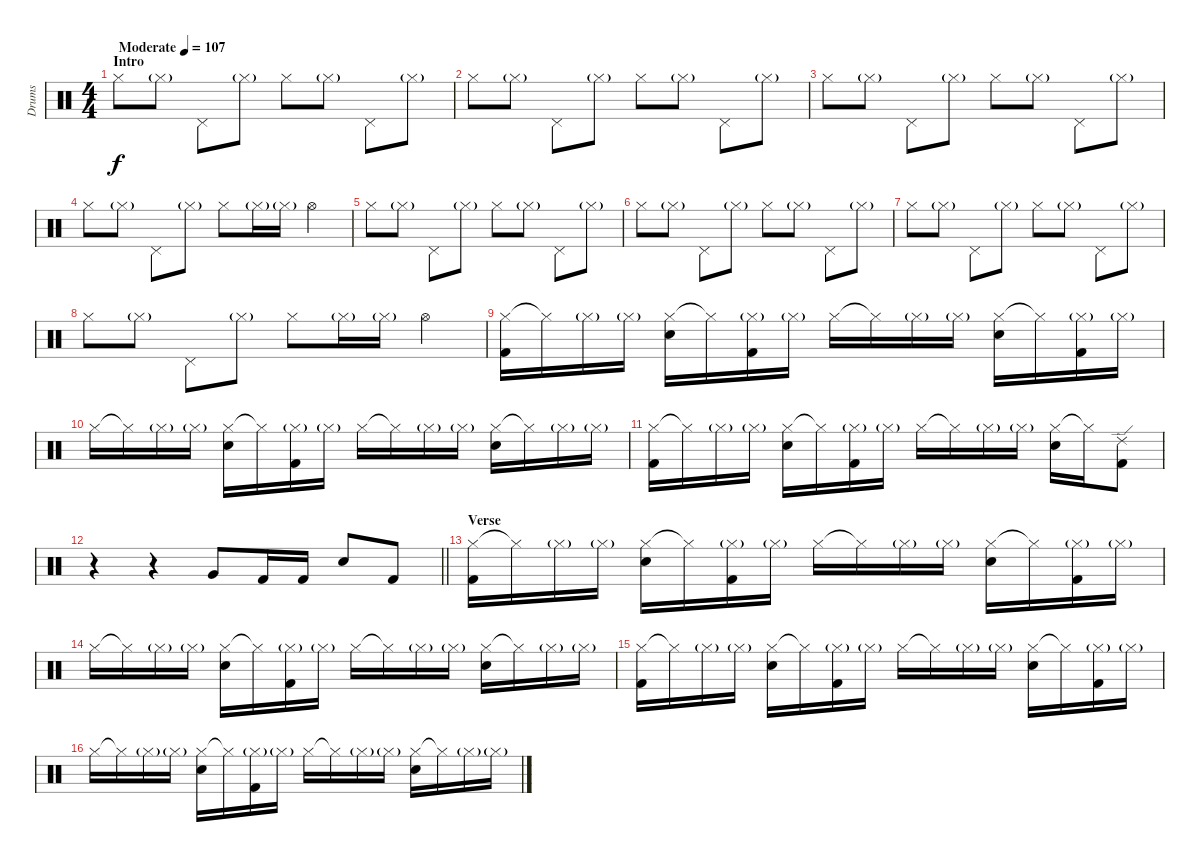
\track ("Drums" "Drums") {instrument percussion}
\staff {score}
\articulation defaults
\ts (4 4)
\section ("" "Intro")
\tempo (107 "Moderate")
\clef neutral
\ks c "Hi-Hat (closed)".8{dy f} "Hi-Hat (closed)"{g}.8 "Pedal Hi-Hat (hit)".8 "Hi-Hat (closed)"{g}.8 "Hi-Hat (closed)".8 "Hi-Hat (closed)"{g}.8 "Pedal Hi-Hat (hit)".8 "Hi-Hat (closed)"{g}.8
|
"Hi-Hat (closed)".8 "Hi-Hat (closed)"{g}.8 "Pedal Hi-Hat (hit)".8 "Hi-Hat (closed)"{g}.8 "Hi-Hat (closed)".8 "Hi-Hat (closed)"{g}.8 "Pedal Hi-Hat (hit)".8 "Hi-Hat (closed)"{g}.8 |
"Hi-Hat (closed)".8 "Hi-Hat (closed)"{g}.8 "Pedal Hi-Hat (hit)".8 "Hi-Hat (closed)"{g}.8 "Hi-Hat (closed)".8 "Hi-Hat (closed)"{g}.8 "Pedal Hi-Hat (hit)".8 "Hi-Hat (closed)"{g}.8 |
"Hi-Hat (closed)".8 "Hi-Hat (closed)"{g}.8 "Pedal Hi-Hat (hit)".8 "Hi-Hat (closed)"{g}.8 "Hi-Hat (closed)".8 "Hi-Hat (closed)"{g}.16 "Hi-Hat (closed)"{g}.16 "Hi-Hat (open)".4 |
"Hi-Hat (closed)".8 "Hi-Hat (closed)"{g}.8 "Pedal Hi-Hat (hit)".8 "Hi-Hat (closed)"{g}.8 "Hi-Hat (closed)".8 "Hi-Hat (closed)"{g}.8 "Pedal Hi-Hat (hit)".8 "Hi-Hat (closed)"{g}.8 |
"Hi-Hat (closed)".8 "Hi-Hat (closed)"{g}.8 "Pedal Hi-Hat (hit)".8 "Hi-Hat (closed)"{g}.8 "Hi-Hat (closed)".8 "Hi-Hat (closed)"{g}.8 "Pedal Hi-Hat (hit)".8 "Hi-Hat (closed)"{g}.8 |
"Hi-Hat (closed)".8 "Hi-Hat (closed)"{g}.8 "Pedal Hi-Hat (hit)".8 "Hi-Hat (closed)"{g}.8 "Hi-Hat (closed)".8 "Hi-Hat (closed)"{g}.8 "Pedal Hi-Hat (hit)".8 "Hi-Hat (closed)"{g}.8 |
"Hi-Hat (closed)".8 "Hi-Hat (closed)"{g}.8 "Pedal Hi-Hat (hit)".8 "Hi-Hat (closed)"{g}.8 "Hi-Hat (closed)".8 "Hi-Hat (closed)"{g}.16 "Hi-Hat (closed)"{g}.16 "Hi-Hat (open)".4 |
("Hi-Hat (closed)" "Kick (hit) 2").16 "Hi-Hat (closed)"{t}.16 "Hi-Hat (closed)"{g}.16 "Hi-Hat (closed)"{g}.16 ("Hi-Hat (closed)" "Electric Snare (hit)").16 "Hi-Hat (closed)"{t}.16 ("Hi-Hat (closed)"{g} "Kick (hit) 2").16 "Hi-Hat (closed)"{g}.16 "Hi-Hat (closed)".16 "Hi-Hat (closed)"{t}.16 "Hi-Hat (closed)"{g}.16 "Hi-Hat (closed)"{g}.16 ("Hi-Hat (closed)" "Electric Snare (hit)").16 "Hi-Hat (closed)"{t}.16 ("Hi-Hat (closed)"{g} "Kick (hit) 2").16 "Hi-Hat (closed)"{g}.16 |
"Hi-Hat (closed)".16 "Hi-Hat (closed)"{t}.16 "Hi-Hat (closed)"{g}.16 "Hi-Hat (closed)"{g}.16 ("Hi-Hat (closed)" "Electric Snare (hit)").16 "Hi-Hat (closed)"{t}.16 ("Hi-Hat (closed)"{g} "Kick (hit) 2").16 "Hi-Hat (closed)"{g}.16 "Hi-Hat (closed)".16 "Hi-Hat (closed)"{t}.16 "Hi-Hat (closed)"{g}.16 "Hi-Hat (closed)"{g}.16 ("Hi-Hat (closed)" "Electric Snare (hit)").16 "Hi-Hat (closed)"{t}.16 "Hi-Hat (closed)"{g}.16 "Hi-Hat (closed)"{g}.16 |
("Hi-Hat (closed)" "Kick (hit) 2").16 "Hi-Hat (closed)"{t}.16 "Hi-Hat (closed)"{g}.16 "Hi-Hat (closed)"{g}.16 ("Hi-Hat (closed)" "Electric Snare (hit)").16 "Hi-Hat (closed)"{t}.16 ("Hi-Hat (closed)"{g} "Kick (hit) 2").16 "Hi-Hat (closed)"{g}.16 "Hi-Hat (closed)".16 "Hi-Hat (closed)"{t}.16 "Hi-Hat (closed)"{g}.16 "Hi-Hat (closed)"{g}.16 ("Hi-Hat (closed)" "Electric Snare (hit)").16 "Hi-Hat (closed)"{t}.16 ("Ride (edge) 2" "Kick (hit) 2").8 |
\barLineRight lightlight
r.4 r.4 "Very Low Tom (hit)".8 "Kick (hit) 2".16 "Kick (hit) 2".16 "Electric Snare (hit)".8 "Kick (hit) 2".8 |
\section ("" "Verse")
("Hi-Hat (closed)" "Kick (hit) 2").16 "Hi-Hat (closed)"{t}.16 "Hi-Hat (closed)"{g}.16 "Hi-Hat (closed)"{g}.16 ("Hi-Hat (closed)" "Electric Snare (hit)").16 "Hi-Hat (closed)"{t}.16 ("Hi-Hat (closed)"{g} "Kick (hit) 2").16 "Hi-Hat (closed)"{g}.16 "Hi-Hat (closed)".16 "Hi-Hat (closed)"{t}.16 "Hi-Hat (closed)"{g}.16 "Hi-Hat (closed)"{g}.16 ("Hi-Hat (closed)" "Electric Snare (hit)").16 "Hi-Hat (closed)"{t}.16 ("Hi-Hat (closed)"{g} "Kick (hit) 2").16 "Hi-Hat (closed)"{g}.16 |
"Hi-Hat (closed)".16 "Hi-Hat (closed)"{t}.16 "Hi-Hat (closed)"{g}.16 "Hi-Hat (closed)"{g}.16 ("Hi-Hat (closed)" "Electric Snare (hit)").16 "Hi-Hat (closed)"{t}.16 ("Hi-Hat (closed)"{g} "Kick (hit) 2").16 "Hi-Hat (closed)"{g}.16 "Hi-Hat (closed)".16 "Hi-Hat (closed)"{t}.16 "Hi-Hat (closed)"{g}.16 "Hi-Hat (closed)"{g}.16 ("Hi-Hat (closed)" "Electric Snare (hit)").16 "Hi-Hat (closed)"{t}.16 "Hi-Hat (closed)"{g}.16 "Hi-Hat (closed)"{g}.16 |
("Hi-Hat (closed)" "Kick (hit) 2").16 "Hi-Hat (closed)"{t}.16 "Hi-Hat (closed)"{g}.16 "Hi-Hat (closed)"{g}.16 ("Hi-Hat (closed)" "Electric Snare (hit)").16 "Hi-Hat (closed)"{t}.16 ("Hi-Hat (closed)"{g} "Kick (hit) 2").16 "Hi-Hat (closed)"{g}.16 "Hi-Hat (closed)".16 "Hi-Hat (closed)"{t}.16 "Hi-Hat (closed)"{g}.16 "Hi-Hat (closed)"{g}.16 ("Hi-Hat (closed)" "Electric Snare (hit)").16 "Hi-Hat (closed)"{t}.16 ("Hi-Hat (closed)"{g} "Kick (hit) 2").16 "Hi-Hat (closed)"{g}.16 |
"Hi-Hat (closed)".16 "Hi-Hat (closed)"{t}.16 "Hi-Hat (closed)"{g}.16 "Hi-Hat (closed)"{g}.16 ("Hi-Hat (closed)" "Electric Snare (hit)").16 "Hi-Hat (closed)"{t}.16 ("Hi-Hat (closed)"{g} "Kick (hit) 2").16 "Hi-Hat (closed)"{g}.16 "Hi-Hat (closed)".16 "Hi-Hat (closed)"{t}.16 "Hi-Hat (closed)"{g}.16 "Hi-Hat (closed)"{g}.16 ("Hi-Hat (closed)" "Electric Snare (hit)").16 "Hi-Hat (closed)"{t}.16 "Hi-Hat (closed)"{g}.16 "Hi-Hat (closed)"{g}.16
